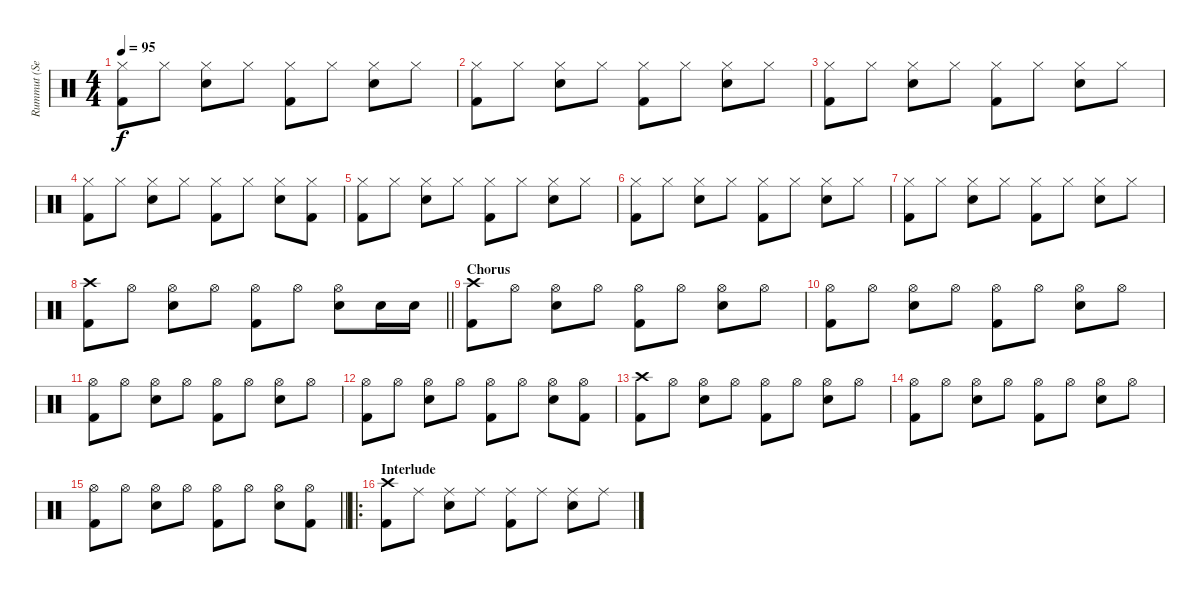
\track ("Rummut (Seppo Pohjolainen)" "Rummut (Se") {instrument percussion}
\staff {score}
\articulation defaults
\ts (4 4)
\tempo 95
\clef neutral
\ks c
("Hi-Hat (closed)" "Kick (hit) 2").8{dy f} "Hi-Hat (closed)".8 ("Hi-Hat (closed)" "Snare (hit) 2").8 "Hi-Hat (closed)".8 ("Hi-Hat (closed)" "Kick (hit) 2").8 "Hi-Hat (closed)".8 ("Hi-Hat (closed)" "Snare (hit) 2").8 "Hi-Hat (closed)".8 |
("Hi-Hat (closed)" "Kick (hit) 2").8 "Hi-Hat (closed)".8 ("Hi-Hat (closed)" "Snare (hit) 2").8 "Hi-Hat (closed)".8 ("Hi-Hat (closed)" "Kick (hit) 2").8 "Hi-Hat (closed)".8 ("Hi-Hat (closed)" "Snare (hit) 2").8 "Hi-Hat (closed)".8 |
("Hi-Hat (closed)" "Kick (hit) 2").8 "Hi-Hat (closed)".8 ("Hi-Hat (closed)" "Snare (hit) 2").8 "Hi-Hat (closed)".8 ("Hi-Hat (closed)" "Kick (hit) 2").8 "Hi-Hat (closed)".8 ("Hi-Hat (closed)" "Snare (hit) 2").8 "Hi-Hat (closed)".8 |
("Hi-Hat (closed)" "Kick (hit) 2").8 "Hi-Hat (closed)".8 ("Hi-Hat (closed)" "Snare (hit) 2").8 "Hi-Hat (closed)".8 ("Hi-Hat (closed)" "Kick (hit) 2").8 "Hi-Hat (closed)".8 ("Hi-Hat (closed)" "Snare (hit) 2").8 ("Hi-Hat (closed)" "Kick (hit) 2").8 |
("Hi-Hat (closed)" "Kick (hit) 2").8 "Hi-Hat (closed)".8 ("Hi-Hat (closed)" "Snare (hit) 2").8 "Hi-Hat (closed)".8 ("Hi-Hat (closed)" "Kick (hit) 2").8 "Hi-Hat (closed)".8 ("Hi-Hat (closed)" "Snare (hit) 2").8 "Hi-Hat (closed)".8 |
("Hi-Hat (closed)" "Kick (hit) 2").8 "Hi-Hat (closed)".8 ("Hi-Hat (closed)" "Snare (hit) 2").8 "Hi-Hat (closed)".8 ("Hi-Hat (closed)" "Kick (hit) 2").8 "Hi-Hat (closed)".8 ("Hi-Hat (closed)" "Snare (hit) 2").8 "Hi-Hat (closed)".8 |
("Hi-Hat (closed)" "Kick (hit) 2").8 "Hi-Hat (closed)".8 ("Hi-Hat (closed)" "Snare (hit) 2").8 "Hi-Hat (closed)".8 ("Hi-Hat (closed)" "Kick (hit) 2").8 "Hi-Hat (closed)".8 ("Hi-Hat (closed)" "Snare (hit) 2").8 "Hi-Hat (closed)".8 |
\barLineRight lightlight
("Crash high (hit)" "Kick (hit) 2").8 "Hi-Hat (open)".8 ("Hi-Hat (open)" "Snare (hit) 2").8 "Hi-Hat (open)".8 ("Hi-Hat (open)" "Kick (hit) 2").8 "Hi-Hat (open)".8 ("Hi-Hat (open)" "Snare (hit) 2").8 "Snare (hit) 2".16 "Snare (hit) 2".16 |
\section ("" "Chorus")
("Crash high (hit)" "Kick (hit) 2").8 "Hi-Hat (open)".8 ("Hi-Hat (open)" "Snare (hit) 2").8 "Hi-Hat (open)".8 ("Hi-Hat (open)" "Kick (hit) 2").8 "Hi-Hat (open)".8 ("Hi-Hat (open)" "Snare (hit) 2").8 "Hi-Hat (open)".8 |
("Hi-Hat (open)" "Kick (hit) 2").8 "Hi-Hat (open)".8 ("Hi-Hat (open)" "Snare (hit) 2").8 "Hi-Hat (open)".8 ("Hi-Hat (open)" "Kick (hit) 2").8 "Hi-Hat (open)".8 ("Hi-Hat (open)" "Snare (hit) 2").8 "Hi-Hat (open)".8 |
("Hi-Hat (open)" "Kick (hit) 2").8 "Hi-Hat (open)".8 ("Hi-Hat (open)" "Snare (hit) 2").8 "Hi-Hat (open)".8 ("Hi-Hat (open)" "Kick (hit) 2").8 "Hi-Hat (open)".8 ("Hi-Hat (open)" "Snare (hit) 2").8 "Hi-Hat (open)".8 |
("Hi-Hat (open)" "Kick (hit) 2").8 "Hi-Hat (open)".8 ("Hi-Hat (open)" "Snare (hit) 2").8 "Hi-Hat (open)".8 ("Hi-Hat (open)" "Kick (hit) 2").8 "Hi-Hat (open)".8 ("Hi-Hat (open)" "Snare (hit) 2").8 ("Hi-Hat (open)" "Kick (hit) 2").8 |
("Crash high (hit)" "Kick (hit) 2").8 "Hi-Hat (open)".8 ("Hi-Hat (open)" "Snare (hit) 2").8 "Hi-Hat (open)".8 ("Hi-Hat (open)" "Kick (hit) 2").8 "Hi-Hat (open)".8 ("Hi-Hat (open)" "Snare (hit) 2").8 "Hi-Hat (open)".8 |
("Hi-Hat (open)" "Kick (hit) 2").8 "Hi-Hat (open)".8 ("Hi-Hat (open)" "Snare (hit) 2").8 "Hi-Hat (open)".8 ("Hi-Hat (open)" "Kick (hit) 2").8 "Hi-Hat (open)".8 ("Hi-Hat (open)" "Snare (hit) 2").8 "Hi-Hat (open)".8 |
\barLineRight lightlight
("Hi-Hat (open)" "Kick (hit) 2").8 "Hi-Hat (open)".8 ("Hi-Hat (open)" "Snare (hit) 2").8 "Hi-Hat (open)".8 ("Hi-Hat (open)" "Kick (hit) 2").8 "Hi-Hat (open)".8 ("Hi-Hat (open)" "Snare (hit) 2").8 ("Hi-Hat (open)" "Kick (hit) 2").8 |
\ro
\section ("" "Interlude")
("Crash high (hit)" "Kick (hit) 2").8 "Ride (middle)".8 ("Ride (middle)" "Snare (hit) 2").8 "Ride (middle)".8 ("Ride (middle)" "Kick (hit) 2").8 "Ride (middle)".8 ("Ride (middle)" "Snare (hit) 2").8 "Ride (middle)".8
